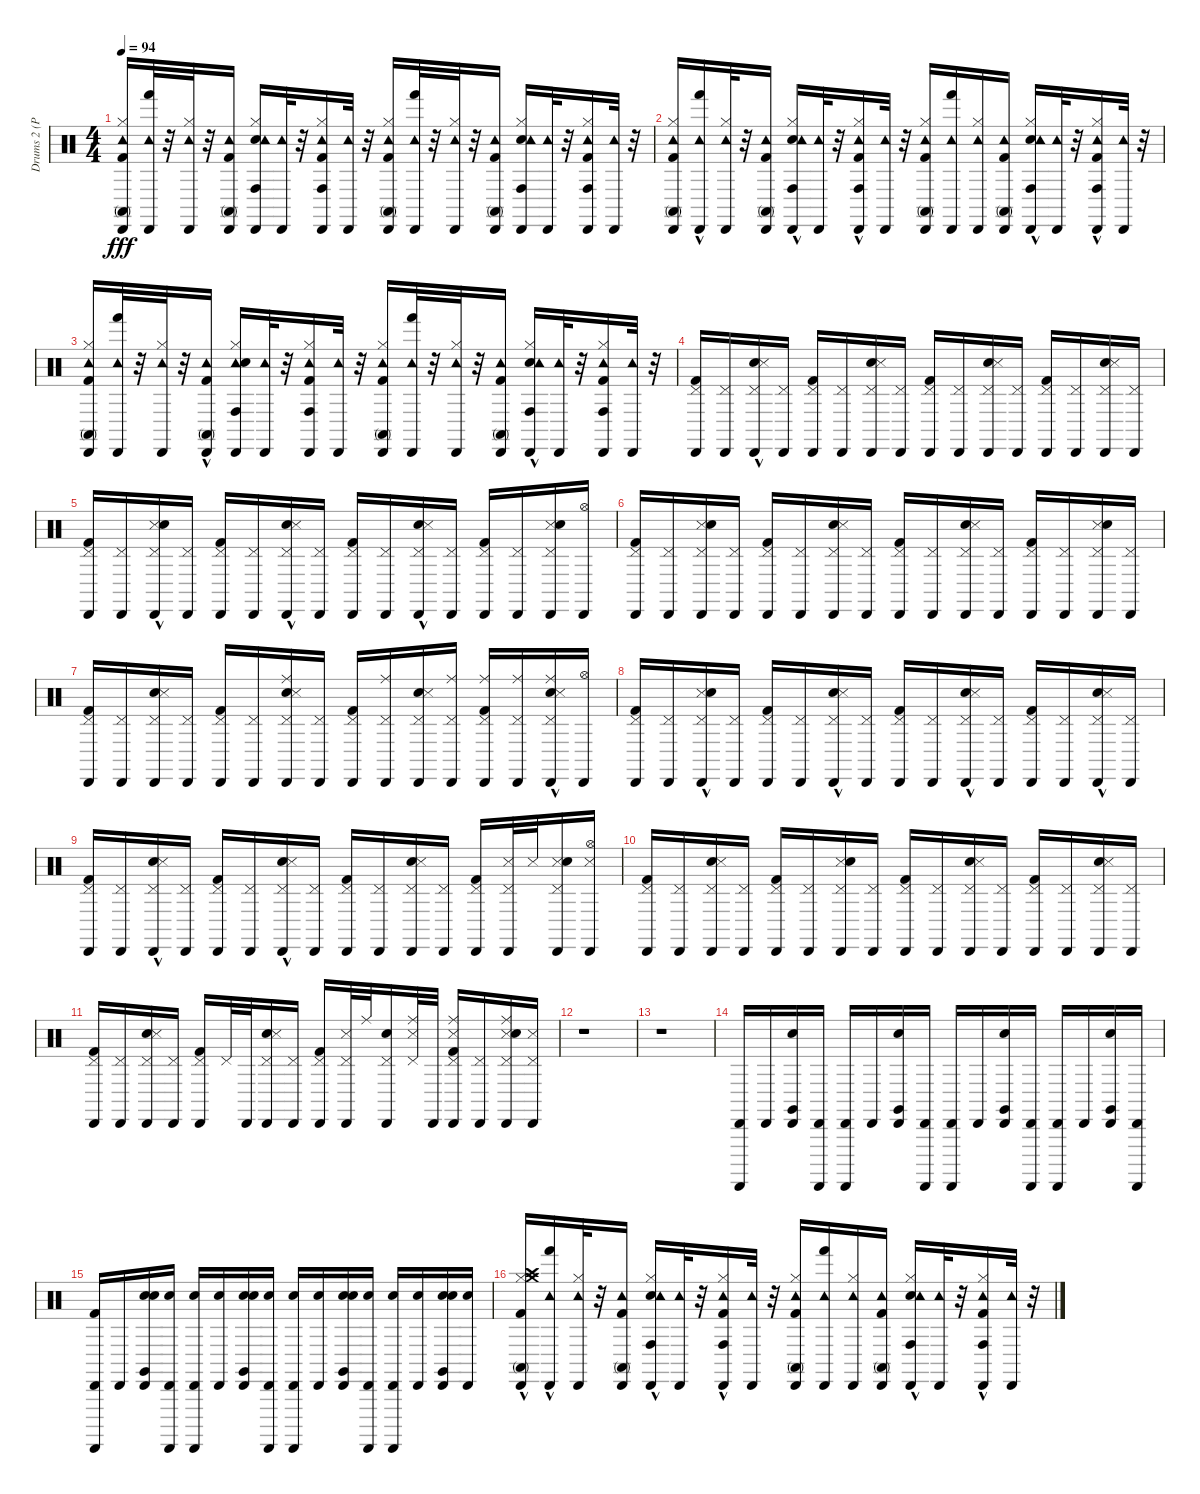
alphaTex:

\track ("Drums 2 (Power)" "Drums 2 (P") {instrument percussion}
\staff {score}
\articulation defaults
\ts (4 4)
\tempo 94
\clef neutral
\ks c
("Kick (hit) 2" "Hi-Hat (closed)" "Conga high (mute)" "Cabasa (hit)" "Tambourine (hit)").16{dy fff} ("Tambourine (hit)" "Hand (hit)" "Cabasa (hit)").32 r.32 ("Tambourine (hit)" "Cabasa (hit)" "Hi-Hat (closed)").32 r.32 ("Tambourine (hit)" "Cabasa (hit)" "Kick (hit) 2" "Conga high (mute)").16 ("Cabasa (hit)" "Conga high (hit)" "Hi-Hat (closed)" "Snare (hit) 2" "Tambourine (hit)").16 ("Tambourine (hit)" "Cabasa (hit)").32 r.32 ("Tambourine (hit)" "Cabasa (hit)" "Hi-Hat (closed)" "Kick (hit) 2" "Conga high (hit)").16 ("Tambourine (hit)" "Cabasa (hit)").32 r.32 ("Cabasa (hit)" "Hi-Hat (closed)" "Kick (hit) 2" "Conga high (mute)" "Tambourine (hit)").16 ("Cabasa (hit)" "Hand (hit)" "Tambourine (hit)").32 r.32 ("Cabasa (hit)" "Hi-Hat (closed)" "Tambourine (hit)").32 r.32 ("Tambourine (hit)" "Cabasa (hit)" "Conga high (mute)" "Kick (hit) 2").16 ("Cabasa (hit)" "Conga high (hit)" "Hi-Hat (closed)" "Snare (hit) 2" "Tambourine (hit)").16 ("Cabasa (hit)" "Tambourine (hit)").32 r.32 ("Cabasa (hit)" "Kick (hit) 2" "Hi-Hat (closed)" "Conga high (hit)" "Tambourine (hit)").16 ("Tambourine (hit)" "Cabasa (hit)").32 r.32 |
("Hi-Hat (closed)" "Kick (hit) 2" "Cabasa (hit)" "Conga high (mute)" "Tambourine (hit)").16 ("Cabasa (hit)" "Hand (hit)"{hac} "Tambourine (hit)").16 ("Tambourine (hit)" "Cabasa (hit)" "Hi-Hat (closed)").32 r.32 ("Tambourine (hit)" "Cabasa (hit)" "Kick (hit) 2" "Conga high (mute)").16 ("Cabasa (hit)" "Hi-Hat (closed)" "Snare (hit) 2"{hac} "Conga high (hit)" "Tambourine (hit)").16 ("Tambourine (hit)" "Cabasa (hit)").32 r.32 ("Tambourine (hit)" "Cabasa (hit)" "Hi-Hat (closed)" "Kick (hit) 2"{hac} "Conga high (hit)").16 ("Tambourine (hit)" "Cabasa (hit)").32 r.32 ("Tambourine (hit)" "Conga high (mute)" "Cabasa (hit)" "Hi-Hat (closed)" "Kick (hit) 2").16 ("Tambourine (hit)" "Hand (hit)" "Cabasa (hit)").16 ("Hi-Hat (closed)" "Cabasa (hit)" "Tambourine (hit)").16 ("Conga high (mute)" "Cabasa (hit)" "Kick (hit) 2" "Tambourine (hit)").16 ("Cabasa (hit)" "Hi-Hat (closed)" "Snare (hit) 2"{hac} "Conga high (hit)" "Tambourine (hit)").16 ("Cabasa (hit)" "Tambourine (hit)").32 r.32 ("Cabasa (hit)" "Kick (hit) 2"{hac} "Hi-Hat (closed)" "Conga high (hit)" "Tambourine (hit)").16 ("Cabasa (hit)" "Tambourine (hit)").32 r.32 |
("Tambourine (hit)" "Conga high (mute)" "Kick (hit) 2" "Hi-Hat (closed)" "Cabasa (hit)").16 ("Tambourine (hit)" "Cabasa (hit)" "Hand (hit)").32 r.32 ("Tambourine (hit)" "Cabasa (hit)" "Hi-Hat (closed)").32 r.32 ("Tambourine (hit)" "Conga high (mute)"{hac} "Cabasa (hit)" "Kick (hit) 2").16 ("Tambourine (hit)" "Cabasa (hit)" "Hi-Hat (closed)" "Snare (hit) 2" "Conga high (hit)").16 ("Tambourine (hit)" "Cabasa (hit)").32 r.32 ("Hi-Hat (closed)" "Kick (hit) 2" "Cabasa (hit)" "Conga high (hit)" "Tambourine (hit)").16 ("Cabasa (hit)" "Tambourine (hit)").32 r.32 ("Cabasa (hit)" "Hi-Hat (closed)" "Kick (hit) 2" "Conga high (mute)" "Tambourine (hit)").16 ("Cabasa (hit)" "Hand (hit)" "Tambourine (hit)").32 r.32 ("Tambourine (hit)" "Cabasa (hit)" "Hi-Hat (closed)").32 r.32 ("Cabasa (hit)" "Kick (hit) 2" "Conga high (mute)" "Tambourine (hit)").16 ("Hi-Hat (closed)" "Snare (hit) 2"{hac} "Cabasa (hit)" "Conga high (hit)" "Tambourine (hit)").16 ("Tambourine (hit)" "Cabasa (hit)").32 r.32 ("Kick (hit) 2" "Hi-Hat (closed)" "Cabasa (hit)" "Conga high (hit)" "Tambourine (hit)").16 ("Cabasa (hit)" "Tambourine (hit)").32 r.32 |
("Kick (hit) 2" "Pedal Hi-Hat (hit)" "Cabasa (hit)").16 ("Cabasa (hit)" "Pedal Hi-Hat (hit)").16 ("Snare (hit) 2" "Pedal Hi-Hat (hit)" "Cabasa (hit)" "Snare (side stick) 3"{hac}).16 ("Cabasa (hit)" "Pedal Hi-Hat (hit)").16 ("Pedal Hi-Hat (hit)" "Kick (hit) 2" "Cabasa (hit)").16 ("Pedal Hi-Hat (hit)" "Cabasa (hit)").16 ("Pedal Hi-Hat (hit)" "Snare (hit) 2" "Snare (side stick) 3" "Cabasa (hit)").16 ("Pedal Hi-Hat (hit)" "Cabasa (hit)").16 ("Pedal Hi-Hat (hit)" "Kick (hit) 2" "Cabasa (hit)").16 ("Pedal Hi-Hat (hit)" "Cabasa (hit)").16 ("Pedal Hi-Hat (hit)" "Snare (hit) 2" "Snare (side stick) 3" "Cabasa (hit)").16 ("Pedal Hi-Hat (hit)" "Cabasa (hit)").16 ("Kick (hit) 2" "Pedal Hi-Hat (hit)" "Cabasa (hit)").16 ("Pedal Hi-Hat (hit)" "Cabasa (hit)").16 ("Pedal Hi-Hat (hit)" "Snare (hit) 2" "Snare (side stick) 3" "Cabasa (hit)").16 ("Pedal Hi-Hat (hit)" "Cabasa (hit)").16 |
("Pedal Hi-Hat (hit)" "Kick (hit) 2" "Cabasa (hit)").16 ("Pedal Hi-Hat (hit)" "Cabasa (hit)").16 ("Snare (side stick) 3"{hac} "Pedal Hi-Hat (hit)" "Snare (hit) 2" "Cabasa (hit)").16 ("Pedal Hi-Hat (hit)" "Cabasa (hit)").16 ("Pedal Hi-Hat (hit)" "Kick (hit) 2" "Cabasa (hit)").16 ("Pedal Hi-Hat (hit)" "Cabasa (hit)").16 ("Pedal Hi-Hat (hit)" "Snare (hit) 2" "Snare (side stick) 3"{hac} "Cabasa (hit)").16 ("Pedal Hi-Hat (hit)" "Cabasa (hit)").16 ("Pedal Hi-Hat (hit)" "Kick (hit) 2" "Cabasa (hit)").16 ("Cabasa (hit)" "Pedal Hi-Hat (hit)").16 ("Pedal Hi-Hat (hit)" "Snare (hit) 2" "Snare (side stick) 3"{hac} "Cabasa (hit)").16 ("Pedal Hi-Hat (hit)" "Cabasa (hit)").16 ("Pedal Hi-Hat (hit)" "Kick (hit) 2" "Cabasa (hit)").16 ("Pedal Hi-Hat (hit)" "Cabasa (hit)").16 ("Snare (side stick) 3" "Pedal Hi-Hat (hit)" "Snare (hit) 2" "Cabasa (hit)").16 ("Hi-Hat (open)" "Cabasa (hit)").16 |
("Pedal Hi-Hat (hit)" "Kick (hit) 2" "Cabasa (hit)").16 ("Pedal Hi-Hat (hit)" "Cabasa (hit)").16 ("Cabasa (hit)" "Snare (side stick) 3" "Pedal Hi-Hat (hit)" "Snare (hit) 2").16 ("Pedal Hi-Hat (hit)" "Cabasa (hit)").16 ("Cabasa (hit)" "Pedal Hi-Hat (hit)" "Kick (hit) 2").16 ("Pedal Hi-Hat (hit)" "Cabasa (hit)").16 ("Pedal Hi-Hat (hit)" "Snare (hit) 2" "Snare (side stick) 3" "Cabasa (hit)").16 ("Pedal Hi-Hat (hit)" "Cabasa (hit)").16 ("Pedal Hi-Hat (hit)" "Kick (hit) 2" "Cabasa (hit)").16 ("Pedal Hi-Hat (hit)" "Cabasa (hit)").16 ("Pedal Hi-Hat (hit)" "Snare (hit) 2" "Cabasa (hit)" "Snare (side stick) 3").16 ("Pedal Hi-Hat (hit)" "Cabasa (hit)").16 ("Pedal Hi-Hat (hit)" "Kick (hit) 2" "Cabasa (hit)").16 ("Pedal Hi-Hat (hit)" "Cabasa (hit)").16 ("Snare (side stick) 3" "Snare (hit) 2" "Pedal Hi-Hat (hit)" "Cabasa (hit)").16 ("Pedal Hi-Hat (hit)" "Cabasa (hit)").16 |
("Pedal Hi-Hat (hit)" "Kick (hit) 2" "Cabasa (hit)").16 ("Pedal Hi-Hat (hit)" "Cabasa (hit)").16 ("Pedal Hi-Hat (hit)" "Snare (hit) 2" "Snare (side stick) 3" "Cabasa (hit)").16 ("Pedal Hi-Hat (hit)" "Cabasa (hit)").16 ("Pedal Hi-Hat (hit)" "Kick (hit) 2" "Cabasa (hit)").16 ("Pedal Hi-Hat (hit)" "Cabasa (hit)").16 ("Pedal Hi-Hat (hit)" "Snare (hit) 2" "Snare (side stick) 3" "Cabasa (hit)" "Ride (middle)").16 ("Pedal Hi-Hat (hit)" "Cabasa (hit)").16 ("Pedal Hi-Hat (hit)" "Kick (hit) 2" "Cabasa (hit)").16 ("Pedal Hi-Hat (hit)" "Cabasa (hit)" "Ride (middle)").16 ("Pedal Hi-Hat (hit)" "Snare (hit) 2" "Snare (side stick) 3" "Cabasa (hit)").16 ("Pedal Hi-Hat (hit)" "Cabasa (hit)" "Ride (middle)").16 ("Kick (hit) 2" "Pedal Hi-Hat (hit)" "Cabasa (hit)" "Ride (middle)").16 ("Pedal Hi-Hat (hit)" "Cabasa (hit)" "Ride (middle)").16 ("Snare (hit) 2" "Pedal Hi-Hat (hit)" "Snare (side stick) 3"{hac} "Cabasa (hit)" "Ride (middle)"{hac}).16 ("Hi-Hat (open)" "Cabasa (hit)").16 |
("Kick (hit) 2" "Pedal Hi-Hat (hit)" "Cabasa (hit)").16 ("Pedal Hi-Hat (hit)" "Cabasa (hit)").16 ("Snare (side stick) 3"{hac} "Snare (hit) 2" "Pedal Hi-Hat (hit)" "Cabasa (hit)").16 ("Pedal Hi-Hat (hit)" "Cabasa (hit)").16 ("Pedal Hi-Hat (hit)" "Kick (hit) 2" "Cabasa (hit)").16 ("Pedal Hi-Hat (hit)" "Cabasa (hit)").16 ("Pedal Hi-Hat (hit)" "Snare (hit) 2" "Snare (side stick) 3"{hac} "Cabasa (hit)").16 ("Pedal Hi-Hat (hit)" "Cabasa (hit)").16 ("Pedal Hi-Hat (hit)" "Kick (hit) 2" "Cabasa (hit)").16 ("Pedal Hi-Hat (hit)" "Cabasa (hit)").16 ("Pedal Hi-Hat (hit)" "Snare (hit) 2" "Snare (side stick) 3"{hac} "Cabasa (hit)").16 ("Pedal Hi-Hat (hit)" "Cabasa (hit)").16 ("Pedal Hi-Hat (hit)" "Kick (hit) 2" "Cabasa (hit)").16 ("Pedal Hi-Hat (hit)" "Cabasa (hit)").16 ("Pedal Hi-Hat (hit)" "Snare (hit) 2" "Snare (side stick) 3"{hac} "Cabasa (hit)").16 ("Pedal Hi-Hat (hit)" "Cabasa (hit)").16 |
("Pedal Hi-Hat (hit)" "Kick (hit) 2" "Cabasa (hit)").16 ("Pedal Hi-Hat (hit)" "Cabasa (hit)").16 ("Pedal Hi-Hat (hit)" "Snare (hit) 2" "Snare (side stick) 3"{hac} "Cabasa (hit)").16 ("Pedal Hi-Hat (hit)" "Cabasa (hit)").16 ("Pedal Hi-Hat (hit)" "Kick (hit) 2" "Cabasa (hit)").16 ("Pedal Hi-Hat (hit)" "Cabasa (hit)").16 ("Pedal Hi-Hat (hit)" "Snare (hit) 2" "Snare (side stick) 3"{hac} "Cabasa (hit)").16 ("Cabasa (hit)" "Pedal Hi-Hat (hit)").16 ("Cabasa (hit)" "Pedal Hi-Hat (hit)" "Kick (hit) 2").16 ("Pedal Hi-Hat (hit)" "Cabasa (hit)").16 ("Pedal Hi-Hat (hit)" "Snare (hit) 2" "Snare (side stick) 3" "Cabasa (hit)").16 ("Cabasa (hit)" "Pedal Hi-Hat (hit)").16 ("Pedal Hi-Hat (hit)" "Kick (hit) 2" "Cabasa (hit)").16 ("Snare (side stick) 3" "Cabasa (hit)" "Pedal Hi-Hat (hit)").32 "Snare (side stick) 3".32 ("Snare (side stick) 3" "Pedal Hi-Hat (hit)" "Snare (hit) 2" "Cabasa (hit)").16 ("Cabasa (hit)" "Hi-Hat (open)" "Snare (side stick) 3").16 |
("Kick (hit) 2" "Pedal Hi-Hat (hit)" "Cabasa (hit)").16 ("Pedal Hi-Hat (hit)" "Cabasa (hit)").16 ("Snare (hit) 2" "Pedal Hi-Hat (hit)" "Cabasa (hit)" "Snare (side stick) 3").16 ("Cabasa (hit)" "Pedal Hi-Hat (hit)").16 ("Kick (hit) 2" "Pedal Hi-Hat (hit)" "Cabasa (hit)").16 ("Pedal Hi-Hat (hit)" "Cabasa (hit)").16 ("Snare (side stick) 3" "Snare (hit) 2" "Pedal Hi-Hat (hit)" "Cabasa (hit)").16 ("Pedal Hi-Hat (hit)" "Cabasa (hit)").16 ("Kick (hit) 2" "Pedal Hi-Hat (hit)" "Cabasa (hit)").16 ("Pedal Hi-Hat (hit)" "Cabasa (hit)").16 ("Pedal Hi-Hat (hit)" "Snare (hit) 2" "Cabasa (hit)" "Snare (side stick) 3").16 ("Pedal Hi-Hat (hit)" "Cabasa (hit)").16 ("Pedal Hi-Hat (hit)" "Kick (hit) 2" "Cabasa (hit)").16 ("Pedal Hi-Hat (hit)" "Cabasa (hit)").16 ("Pedal Hi-Hat (hit)" "Snare (hit) 2" "Snare (side stick) 3" "Cabasa (hit)").16 ("Pedal Hi-Hat (hit)" "Cabasa (hit)").16 |
("Kick (hit) 2" "Pedal Hi-Hat (hit)" "Cabasa (hit)").16 ("Pedal Hi-Hat (hit)" "Cabasa (hit)").16 ("Snare (hit) 2" "Pedal Hi-Hat (hit)" "Snare (side stick) 3" "Cabasa (hit)").16 ("Pedal Hi-Hat (hit)" "Cabasa (hit)").16 ("Kick (hit) 2" "Pedal Hi-Hat (hit)" "Cabasa (hit)").16 "Pedal Hi-Hat (hit)".32 "Cabasa (hit)".32 ("Snare (hit) 2" "Pedal Hi-Hat (hit)" "Snare (side stick) 3" "Cabasa (hit)").16 ("Pedal Hi-Hat (hit)" "Cabasa (hit)").16 ("Kick (hit) 2" "Pedal Hi-Hat (hit)" "Cabasa (hit)").16 ("Pedal Hi-Hat (hit)" "Snare (side stick) 3" "Cabasa (hit)").32 "Ride (middle)".32 ("Pedal Hi-Hat (hit)" "Snare (hit) 2" "Cabasa (hit)").16 ("Ride (middle)" "Snare (side stick) 3" "Pedal Hi-Hat (hit)").32 "Cabasa (hit)".32 ("Pedal Hi-Hat (hit)" "Kick (hit) 2" "Ride (middle)" "Snare (side stick) 3" "Cabasa (hit)").16 ("Pedal Hi-Hat (hit)" "Cabasa (hit)").16 ("Ride (middle)" "Snare (side stick) 3" "Pedal Hi-Hat (hit)" "Snare (hit) 2" "Cabasa (hit)").16 ("Snare (side stick) 3" "Pedal Hi-Hat (hit)" "Cabasa (hit)").16 |
r.1 |
r.1 |
("Guiro (scrap-return)" "Cabasa (hit)").16 "Cabasa (hit)".16 ("Cabasa (hit)" "Claves (hit)" "Hand Clap (hit)").16 ("Cabasa (hit)" "Guiro (scrap-return)").16 ("Cabasa (hit)" "Guiro (scrap-return)").16 "Cabasa (hit)".16 ("Cabasa (hit)" "Claves (hit)" "Hand Clap (hit)").16 ("Guiro (scrap-return)" "Cabasa (hit)").16 ("Guiro (scrap-return)" "Cabasa (hit)").16 "Cabasa (hit)".16 ("Hand Clap (hit)" "Claves (hit)" "Cabasa (hit)").16 ("Guiro (scrap-return)" "Cabasa (hit)").16 ("Cabasa (hit)" "Guiro (scrap-return)").16 "Cabasa (hit)".16 ("Hand Clap (hit)" "Claves (hit)" "Cabasa (hit)").16 ("Guiro (scrap-return)" "Cabasa (hit)").16 |
("Guiro (scrap-return)" "Kick (hit) 2" "Cabasa (hit)").16 "Cabasa (hit)".16 ("Claves (hit)" "Snare (hit) 2" "Cabasa (hit)" "Hand Clap (hit)").16 ("Guiro (scrap-return)" "Snare (hit) 2" "Cabasa (hit)").16 ("Guiro (scrap-return)" "Snare (hit) 2" "Cabasa (hit)").16 ("Snare (hit) 2" "Cabasa (hit)").16 ("Hand Clap (hit)" "Claves (hit)" "Snare (hit) 2" "Cabasa (hit)").16 ("Snare (hit) 2" "Guiro (scrap-return)" "Cabasa (hit)").16 ("Cabasa (hit)" "Snare (hit) 2" "Guiro (scrap-return)").16 ("Cabasa (hit)" "Snare (hit) 2").16 ("Cabasa (hit)" "Snare (hit) 2" "Claves (hit)" "Hand Clap (hit)").16 ("Cabasa (hit)" "Snare (hit) 2" "Guiro (scrap-return)").16 ("Cabasa (hit)" "Snare (hit) 2" "Guiro (scrap-return)").16 ("Snare (hit) 2" "Cabasa (hit)").16 ("Cabasa (hit)" "Snare (hit) 2" "Claves (hit)" "Hand Clap (hit)").16 ("Snare (hit) 2" "Cabasa (hit)").16 |
("Hi-Hat (closed)" "Kick (hit) 2" "Cabasa (hit)" "Crash high (hit)" "Conga high (mute)" "Crash medium (hit)"{hac}).16 ("Cabasa (hit)" "Hand (hit)"{hac} "Tambourine (hit)").16 ("Tambourine (hit)" "Cabasa (hit)" "Hi-Hat (closed)").32 r.32 ("Tambourine (hit)" "Cabasa (hit)" "Kick (hit) 2" "Conga high (mute)").16 ("Cabasa (hit)" "Hi-Hat (closed)" "Snare (hit) 2"{hac} "Conga high (hit)" "Tambourine (hit)").16 ("Tambourine (hit)" "Cabasa (hit)").32 r.32 ("Tambourine (hit)" "Cabasa (hit)" "Hi-Hat (closed)" "Kick (hit) 2"{hac} "Conga high (hit)").16 ("Tambourine (hit)" "Cabasa (hit)").32 r.32 ("Tambourine (hit)" "Conga high (mute)" "Cabasa (hit)" "Hi-Hat (closed)" "Kick (hit) 2").16 ("Tambourine (hit)" "Hand (hit)" "Cabasa (hit)").16 ("Hi-Hat (closed)" "Cabasa (hit)" "Tambourine (hit)").16 ("Conga high (mute)" "Cabasa (hit)" "Kick (hit) 2" "Tambourine (hit)").16 ("Cabasa (hit)" "Hi-Hat (closed)" "Snare (hit) 2"{hac} "Conga high (hit)" "Tambourine (hit)").16 ("Cabasa (hit)" "Tambourine (hit)").32 r.32 ("Cabasa (hit)" "Kick (hit) 2"{hac} "Hi-Hat (closed)" "Conga high (hit)" "Tambourine (hit)").16 ("Cabasa (hit)" "Tambourine (hit)").32 r.32
